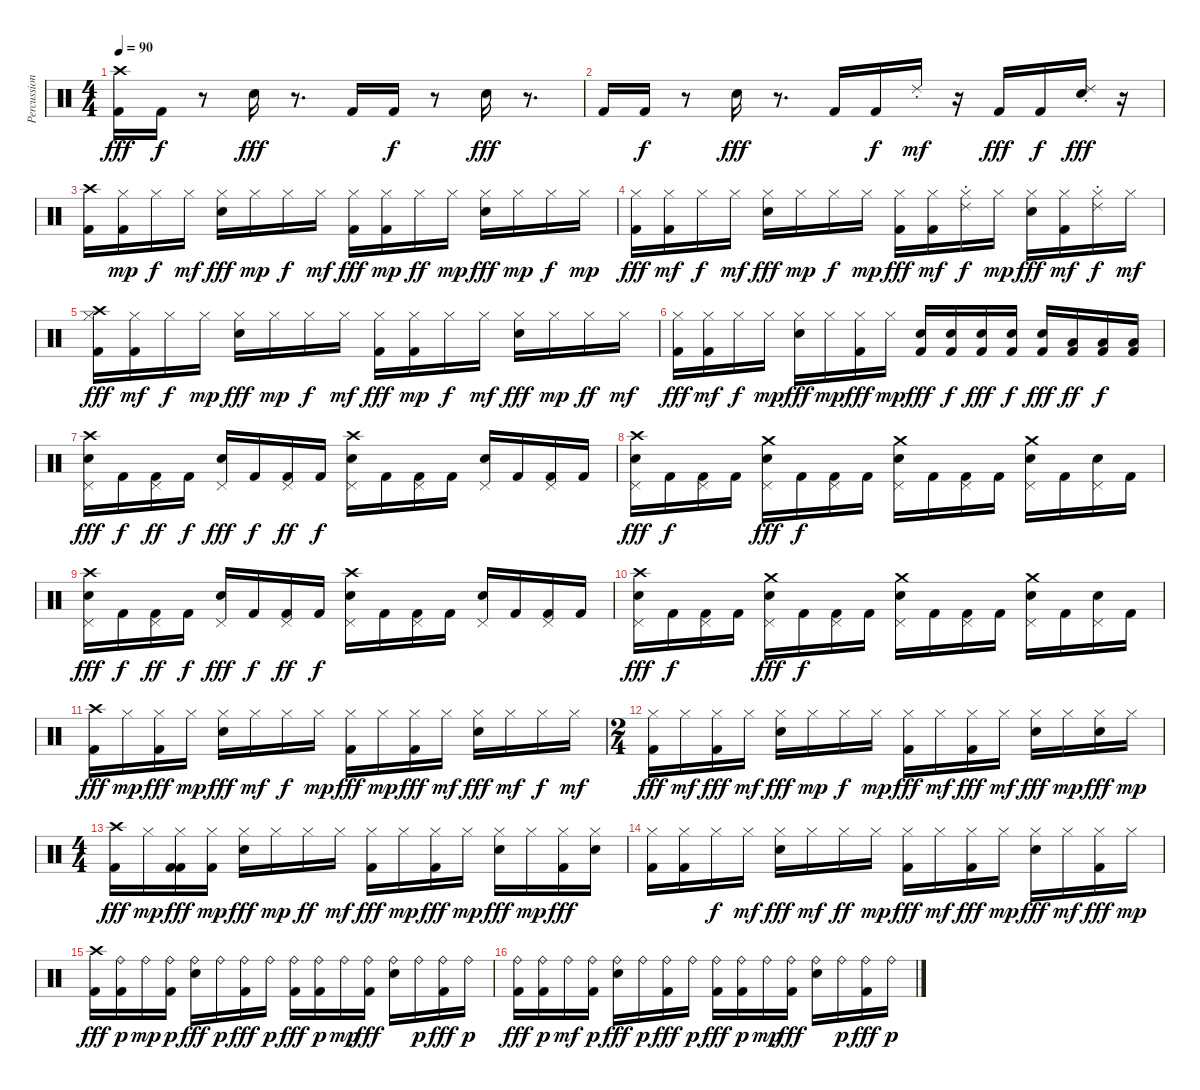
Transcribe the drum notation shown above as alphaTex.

\track ("Percussion" "Percussion") {instrument percussion}
\staff {score}
\articulation defaults
\ts (4 4)
\tempo 90
\clef neutral
\ks c
("Crash high (hit)" "Kick (hit) 2").16{dy fff} "Kick (hit) 2".16{dy f} r.8 "Electric Snare (hit)".16{dy fff} r.8{d} "Kick (hit) 2".16 "Kick (hit) 2".16{dy f} r.8 "Electric Snare (hit)".16{dy fff} r.8{d} |
"Kick (hit) 2".16 "Kick (hit) 2".16{dy f} r.8 "Electric Snare (hit)".16{dy fff} r.8{d} "Kick (hit) 2".16 "Kick (hit) 2".16{dy f} "Ride (choke) 2".16{dy mf} r.16 "Kick (hit) 2".16{dy fff} "Kick (hit) 2".16{dy f} ("Ride (choke) 2" "Electric Snare (hit)").16{dy fff} r.16 |
("Crash high (hit)" "Kick (hit) 2").16 ("Hi-Hat (closed)" "Kick (hit) 2").16{dy mp} "Hi-Hat (closed)".16{dy f} "Hi-Hat (closed)".16{dy mf} ("Hi-Hat (closed)" "Electric Snare (hit)").16{dy fff} "Hi-Hat (closed)".16{dy mp} "Hi-Hat (closed)".16{dy f} "Hi-Hat (closed)".16{dy mf} ("Hi-Hat (closed)" "Kick (hit) 2").16{dy fff} ("Hi-Hat (closed)" "Kick (hit) 2").16{dy mp} "Hi-Hat (closed)".16{dy ff} "Hi-Hat (closed)".16{dy mp} ("Hi-Hat (closed)" "Electric Snare (hit)").16{dy fff} "Hi-Hat (closed)".16{dy mp} "Hi-Hat (closed)".16{dy f} "Hi-Hat (closed)".16{dy mp} |
("Hi-Hat (closed)" "Kick (hit) 2").16{dy fff} ("Hi-Hat (closed)" "Kick (hit) 2").16{dy mf} "Hi-Hat (closed)".16{dy f} "Hi-Hat (closed)".16{dy mf} ("Hi-Hat (closed)" "Electric Snare (hit)").16{dy fff} "Hi-Hat (closed)".16{dy mp} "Hi-Hat (closed)".16{dy f} "Hi-Hat (closed)".16{dy mp} ("Hi-Hat (closed)" "Kick (hit) 2").16{dy fff} ("Hi-Hat (closed)" "Kick (hit) 2").16{dy mf} ("Ride (choke) 2" "Hi-Hat (closed)").16{dy f} "Hi-Hat (closed)".16{dy mp} ("Hi-Hat (closed)" "Electric Snare (hit)").16{dy fff} ("Hi-Hat (closed)" "Kick (hit) 2").16{dy mf} ("Ride (choke) 2" "Hi-Hat (closed)").16{dy f} "Hi-Hat (closed)".16{dy mf} |
("Hi-Hat (closed)" "Crash high (hit)" "Kick (hit) 2").16{dy fff} ("Hi-Hat (closed)" "Kick (hit) 2").16{dy mf} "Hi-Hat (closed)".16{dy f} "Hi-Hat (closed)".16{dy mp} ("Hi-Hat (closed)" "Electric Snare (hit)").16{dy fff} "Hi-Hat (closed)".16{dy mp} "Hi-Hat (closed)".16{dy f} "Hi-Hat (closed)".16{dy mf} ("Hi-Hat (closed)" "Kick (hit) 2").16{dy fff} ("Hi-Hat (closed)" "Kick (hit) 2").16{dy mp} "Hi-Hat (closed)".16{dy f} "Hi-Hat (closed)".16{dy mf} ("Hi-Hat (closed)" "Electric Snare (hit)").16{dy fff} "Hi-Hat (closed)".16{dy mp} "Hi-Hat (closed)".16{dy ff} "Hi-Hat (closed)".16{dy mf} |
("Hi-Hat (closed)" "Kick (hit) 2").16{dy fff} ("Hi-Hat (closed)" "Kick (hit) 2").16{dy mf} "Hi-Hat (closed)".16{dy f} "Hi-Hat (closed)".16{dy mp} ("Hi-Hat (closed)" "Electric Snare (hit)").16{dy fff} "Hi-Hat (closed)".16{dy mp} ("Hi-Hat (closed)" "Kick (hit) 2").16{dy fff} "Hi-Hat (closed)".16{dy mp} ("Electric Snare (hit)" "Kick (hit) 2").16{dy fff} ("Electric Snare (hit)" "Kick (hit) 2").16{dy f} ("Electric Snare (hit)" "Kick (hit) 2").16{dy fff} ("Electric Snare (hit)" "Kick (hit) 2").16{dy f} ("Electric Snare (hit)" "Kick (hit) 2").16{dy fff} ("Low Tom (hit)" "Kick (hit) 2").16{dy ff} ("Low Tom (hit)" "Kick (hit) 2").16{dy f} ("Low Floor Tom (hit)" "Kick (hit) 2").16 |
("Pedal Hi-Hat (hit)" "Crash high (hit)" "Electric Snare (hit)").16{dy fff} "Kick (hit) 2".16{dy f} ("Pedal Hi-Hat (hit)" "Kick (hit) 2").16{dy ff} "Kick (hit) 2".16{dy f} ("Pedal Hi-Hat (hit)" "Electric Snare (hit)").16{dy fff} "Kick (hit) 2".16{dy f} ("Pedal Hi-Hat (hit)" "Kick (hit) 2").16{dy ff} "Kick (hit) 2".16{dy f} ("Pedal Hi-Hat (hit)" "Crash high (hit)" "Electric Snare (hit)").16 "Kick (hit) 2".16 ("Pedal Hi-Hat (hit)" "Kick (hit) 2").16 "Kick (hit) 2".16 ("Pedal Hi-Hat (hit)" "Electric Snare (hit)").16 "Kick (hit) 2".16 ("Pedal Hi-Hat (hit)" "Kick (hit) 2").16 "Kick (hit) 2".16 |
("Pedal Hi-Hat (hit)" "Crash high (hit)" "Electric Snare (hit)").16{dy fff} "Kick (hit) 2".16{dy f} ("Pedal Hi-Hat (hit)" "Kick (hit) 2").16 "Kick (hit) 2".16 ("Pedal Hi-Hat (hit)" "Crash medium (hit)" "Electric Snare (hit)").16{dy fff} "Kick (hit) 2".16{dy f} ("Pedal Hi-Hat (hit)" "Kick (hit) 2").16 "Kick (hit) 2".16 ("Pedal Hi-Hat (hit)" "Crash medium (hit)" "Electric Snare (hit)").16 "Kick (hit) 2".16 ("Pedal Hi-Hat (hit)" "Kick (hit) 2").16 "Kick (hit) 2".16 ("Pedal Hi-Hat (hit)" "Crash medium (hit)" "Electric Snare (hit)").16 "Kick (hit) 2".16 ("Pedal Hi-Hat (hit)" "Electric Snare (hit)").16 "Kick (hit) 2".16 |
("Pedal Hi-Hat (hit)" "Crash high (hit)" "Electric Snare (hit)").16{dy fff} "Kick (hit) 2".16{dy f} ("Pedal Hi-Hat (hit)" "Kick (hit) 2").16{dy ff} "Kick (hit) 2".16{dy f} ("Pedal Hi-Hat (hit)" "Electric Snare (hit)").16{dy fff} "Kick (hit) 2".16{dy f} ("Pedal Hi-Hat (hit)" "Kick (hit) 2").16{dy ff} "Kick (hit) 2".16{dy f} ("Pedal Hi-Hat (hit)" "Crash high (hit)" "Electric Snare (hit)").16 "Kick (hit) 2".16 ("Pedal Hi-Hat (hit)" "Kick (hit) 2").16 "Kick (hit) 2".16 ("Pedal Hi-Hat (hit)" "Electric Snare (hit)").16 "Kick (hit) 2".16 ("Pedal Hi-Hat (hit)" "Kick (hit) 2").16 "Kick (hit) 2".16 |
("Pedal Hi-Hat (hit)" "Crash high (hit)" "Electric Snare (hit)").16{dy fff} "Kick (hit) 2".16{dy f} ("Pedal Hi-Hat (hit)" "Kick (hit) 2").16 "Kick (hit) 2".16 ("Pedal Hi-Hat (hit)" "Crash medium (hit)" "Electric Snare (hit)").16{dy fff} "Kick (hit) 2".16{dy f} ("Pedal Hi-Hat (hit)" "Kick (hit) 2").16 "Kick (hit) 2".16 ("Pedal Hi-Hat (hit)" "Crash medium (hit)" "Electric Snare (hit)").16 "Kick (hit) 2".16 ("Pedal Hi-Hat (hit)" "Kick (hit) 2").16 "Kick (hit) 2".16 ("Pedal Hi-Hat (hit)" "Crash medium (hit)" "Electric Snare (hit)").16 "Kick (hit) 2".16 ("Pedal Hi-Hat (hit)" "Electric Snare (hit)").16 "Kick (hit) 2".16 |
("Crash high (hit)" "Kick (hit) 2").16{dy fff} "Hi-Hat (closed)".16{dy mp} ("Hi-Hat (closed)" "Kick (hit) 2").16{dy fff} "Hi-Hat (closed)".16{dy mp} ("Hi-Hat (closed)" "Electric Snare (hit)").16{dy fff} "Hi-Hat (closed)".16{dy mf} "Hi-Hat (closed)".16{dy f} "Hi-Hat (closed)".16{dy mp} ("Hi-Hat (closed)" "Kick (hit) 2").16{dy fff} "Hi-Hat (closed)".16{dy mp} ("Hi-Hat (closed)" "Kick (hit) 2").16{dy fff} "Hi-Hat (closed)".16{dy mf} ("Hi-Hat (closed)" "Electric Snare (hit)").16{dy fff} "Hi-Hat (closed)".16{dy mf} "Hi-Hat (closed)".16{dy f} "Hi-Hat (closed)".16{dy mf} |
\ts (2 4)
("Hi-Hat (closed)" "Kick (hit) 2").16{dy fff} "Hi-Hat (closed)".16{dy mf} ("Hi-Hat (closed)" "Kick (hit) 2").16{dy fff} "Hi-Hat (closed)".16{dy mf} ("Hi-Hat (closed)" "Electric Snare (hit)").16{dy fff} "Hi-Hat (closed)".16{dy mp} "Hi-Hat (closed)".16{dy f} "Hi-Hat (closed)".16{dy mp} ("Hi-Hat (closed)" "Kick (hit) 2").16{dy fff} "Hi-Hat (closed)".16{dy mf} ("Hi-Hat (closed)" "Kick (hit) 2").16{dy fff} "Hi-Hat (closed)".16{dy mf} ("Hi-Hat (closed)" "Electric Snare (hit)").16{dy fff} "Hi-Hat (closed)".16{dy mp} ("Hi-Hat (closed)" "Electric Snare (hit)").16{dy fff} "Hi-Hat (closed)".16{dy mp} |
\ts (4 4)
("Crash high (hit)" "Kick (hit) 2").16{dy fff} "Hi-Hat (closed)".16{dy mp} ("Hi-Hat (closed)" "Kick (hit) 2" "Kick (hit) 2").16{dy fff} ("Hi-Hat (closed)" "Kick (hit) 2").16{dy mp} ("Hi-Hat (closed)" "Electric Snare (hit)").16{dy fff} "Hi-Hat (closed)".16{dy mp} "Hi-Hat (closed)".16{dy ff} "Hi-Hat (closed)".16{dy mf} ("Hi-Hat (closed)" "Kick (hit) 2").16{dy fff} "Hi-Hat (closed)".16{dy mp} ("Hi-Hat (closed)" "Kick (hit) 2").16{dy fff} "Hi-Hat (closed)".16{dy mp} ("Hi-Hat (closed)" "Electric Snare (hit)").16{dy fff} "Hi-Hat (closed)".16{dy mp} ("Hi-Hat (closed)" "Kick (hit) 2").16{dy fff} ("Hi-Hat (closed)" "Electric Snare (hit)").16 |
("Hi-Hat (closed)" "Kick (hit) 2").16 ("Hi-Hat (closed)" "Kick (hit) 2").16 "Hi-Hat (closed)".16{dy f} "Hi-Hat (closed)".16{dy mf} ("Hi-Hat (closed)" "Electric Snare (hit)").16{dy fff} "Hi-Hat (closed)".16{dy mf} "Hi-Hat (closed)".16{dy ff} "Hi-Hat (closed)".16{dy mp} ("Hi-Hat (closed)" "Kick (hit) 2").16{dy fff} "Hi-Hat (closed)".16{dy mf} ("Hi-Hat (closed)" "Kick (hit) 2").16{dy fff} "Hi-Hat (closed)".16{dy mp} ("Hi-Hat (closed)" "Electric Snare (hit)").16{dy fff} "Hi-Hat (closed)".16{dy mf} ("Hi-Hat (closed)" "Kick (hit) 2").16{dy fff} "Hi-Hat (closed)".16{dy mp} |
("Crash high (hit)" "Kick (hit) 2").16{dy fff} ("Ride (bell)" "Kick (hit) 2").16{dy p} "Ride (bell)".16{dy mp} ("Ride (bell)" "Kick (hit) 2").16{dy p} ("Ride (bell)" "Electric Snare (hit)").16{dy fff} "Ride (bell)".16{dy p} ("Ride (bell)" "Kick (hit) 2").16{dy fff} "Ride (bell)".16{dy p} ("Ride (bell)" "Kick (hit) 2").16{dy fff} ("Ride (bell)" "Kick (hit) 2").16{dy p} "Ride (bell)".16{dy mp} ("Ride (bell)" "Kick (hit) 2").16{dy fff} ("Ride (bell)" "Electric Snare (hit)").16 "Ride (bell)".16{dy p} ("Ride (bell)" "Kick (hit) 2").16{dy fff} "Ride (bell)".16{dy p} |
("Ride (bell)" "Kick (hit) 2").16{dy fff} ("Ride (bell)" "Kick (hit) 2").16{dy p} "Ride (bell)".16{dy mf} ("Ride (bell)" "Kick (hit) 2").16{dy p} ("Ride (bell)" "Electric Snare (hit)").16{dy fff} "Ride (bell)".16{dy p} ("Ride (bell)" "Kick (hit) 2").16{dy fff} "Ride (bell)".16{dy p} ("Ride (bell)" "Kick (hit) 2").16{dy fff} ("Ride (bell)" "Kick (hit) 2").16{dy p} "Ride (bell)".16{dy mp} ("Ride (bell)" "Kick (hit) 2").16{dy fff} ("Ride (bell)" "Electric Snare (hit)").16 "Ride (bell)".16{dy p} ("Ride (bell)" "Kick (hit) 2").16{dy fff} "Ride (bell)".16{dy p}
